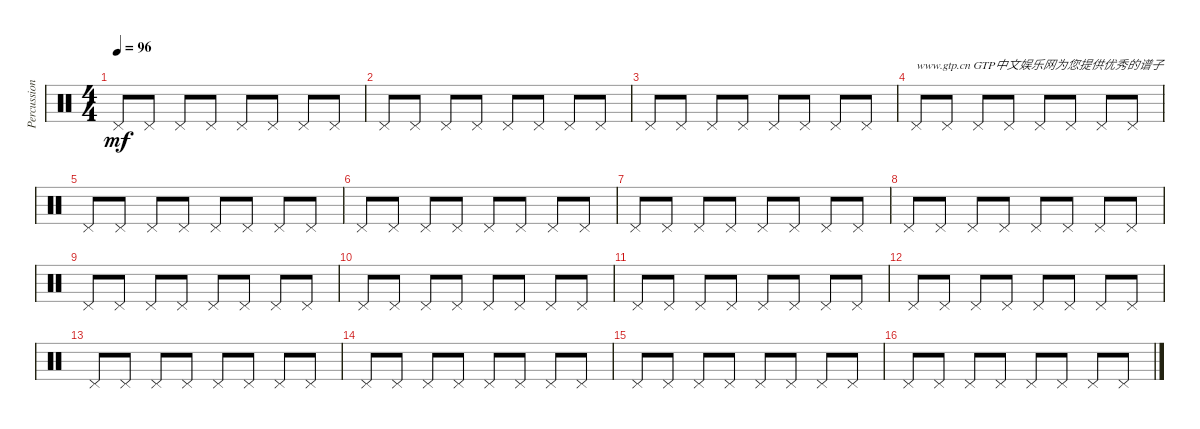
\track ("Percussion" "Percussion") {instrument percussion}
\staff {score}
\articulation defaults
\ts (4 4)
\tempo 96
\clef neutral
\ks c "Pedal Hi-Hat (hit)".8{dy mf} "Pedal Hi-Hat (hit)".8 "Pedal Hi-Hat (hit)".8 "Pedal Hi-Hat (hit)".8 "Pedal Hi-Hat (hit)".8 "Pedal Hi-Hat (hit)".8 "Pedal Hi-Hat (hit)".8 "Pedal Hi-Hat (hit)".8
|
"Pedal Hi-Hat (hit)".8 "Pedal Hi-Hat (hit)".8 "Pedal Hi-Hat (hit)".8 "Pedal Hi-Hat (hit)".8 "Pedal Hi-Hat (hit)".8 "Pedal Hi-Hat (hit)".8 "Pedal Hi-Hat (hit)".8 "Pedal Hi-Hat (hit)".8 |
"Pedal Hi-Hat (hit)".8 "Pedal Hi-Hat (hit)".8 "Pedal Hi-Hat (hit)".8 "Pedal Hi-Hat (hit)".8 "Pedal Hi-Hat (hit)".8 "Pedal Hi-Hat (hit)".8 "Pedal Hi-Hat (hit)".8 "Pedal Hi-Hat (hit)".8 |
"Pedal Hi-Hat (hit)".8{txt "www.gtp.cn GTP中文娱乐网为您提供优秀的谱子"} "Pedal Hi-Hat (hit)".8 "Pedal Hi-Hat (hit)".8 "Pedal Hi-Hat (hit)".8 "Pedal Hi-Hat (hit)".8 "Pedal Hi-Hat (hit)".8 "Pedal Hi-Hat (hit)".8 "Pedal Hi-Hat (hit)".8 |
"Pedal Hi-Hat (hit)".8 "Pedal Hi-Hat (hit)".8 "Pedal Hi-Hat (hit)".8 "Pedal Hi-Hat (hit)".8 "Pedal Hi-Hat (hit)".8 "Pedal Hi-Hat (hit)".8 "Pedal Hi-Hat (hit)".8 "Pedal Hi-Hat (hit)".8 |
"Pedal Hi-Hat (hit)".8 "Pedal Hi-Hat (hit)".8 "Pedal Hi-Hat (hit)".8 "Pedal Hi-Hat (hit)".8 "Pedal Hi-Hat (hit)".8 "Pedal Hi-Hat (hit)".8 "Pedal Hi-Hat (hit)".8 "Pedal Hi-Hat (hit)".8 |
"Pedal Hi-Hat (hit)".8 "Pedal Hi-Hat (hit)".8 "Pedal Hi-Hat (hit)".8 "Pedal Hi-Hat (hit)".8 "Pedal Hi-Hat (hit)".8 "Pedal Hi-Hat (hit)".8 "Pedal Hi-Hat (hit)".8 "Pedal Hi-Hat (hit)".8 |
"Pedal Hi-Hat (hit)".8 "Pedal Hi-Hat (hit)".8 "Pedal Hi-Hat (hit)".8 "Pedal Hi-Hat (hit)".8 "Pedal Hi-Hat (hit)".8 "Pedal Hi-Hat (hit)".8 "Pedal Hi-Hat (hit)".8 "Pedal Hi-Hat (hit)".8 |
"Pedal Hi-Hat (hit)".8 "Pedal Hi-Hat (hit)".8 "Pedal Hi-Hat (hit)".8 "Pedal Hi-Hat (hit)".8 "Pedal Hi-Hat (hit)".8 "Pedal Hi-Hat (hit)".8 "Pedal Hi-Hat (hit)".8 "Pedal Hi-Hat (hit)".8 |
"Pedal Hi-Hat (hit)".8 "Pedal Hi-Hat (hit)".8 "Pedal Hi-Hat (hit)".8 "Pedal Hi-Hat (hit)".8 "Pedal Hi-Hat (hit)".8 "Pedal Hi-Hat (hit)".8 "Pedal Hi-Hat (hit)".8 "Pedal Hi-Hat (hit)".8 |
"Pedal Hi-Hat (hit)".8 "Pedal Hi-Hat (hit)".8 "Pedal Hi-Hat (hit)".8 "Pedal Hi-Hat (hit)".8 "Pedal Hi-Hat (hit)".8 "Pedal Hi-Hat (hit)".8 "Pedal Hi-Hat (hit)".8 "Pedal Hi-Hat (hit)".8 |
"Pedal Hi-Hat (hit)".8 "Pedal Hi-Hat (hit)".8 "Pedal Hi-Hat (hit)".8 "Pedal Hi-Hat (hit)".8 "Pedal Hi-Hat (hit)".8 "Pedal Hi-Hat (hit)".8 "Pedal Hi-Hat (hit)".8 "Pedal Hi-Hat (hit)".8 |
"Pedal Hi-Hat (hit)".8 "Pedal Hi-Hat (hit)".8 "Pedal Hi-Hat (hit)".8 "Pedal Hi-Hat (hit)".8 "Pedal Hi-Hat (hit)".8 "Pedal Hi-Hat (hit)".8 "Pedal Hi-Hat (hit)".8 "Pedal Hi-Hat (hit)".8 |
"Pedal Hi-Hat (hit)".8 "Pedal Hi-Hat (hit)".8 "Pedal Hi-Hat (hit)".8 "Pedal Hi-Hat (hit)".8 "Pedal Hi-Hat (hit)".8 "Pedal Hi-Hat (hit)".8 "Pedal Hi-Hat (hit)".8 "Pedal Hi-Hat (hit)".8 |
"Pedal Hi-Hat (hit)".8 "Pedal Hi-Hat (hit)".8 "Pedal Hi-Hat (hit)".8 "Pedal Hi-Hat (hit)".8 "Pedal Hi-Hat (hit)".8 "Pedal Hi-Hat (hit)".8 "Pedal Hi-Hat (hit)".8 "Pedal Hi-Hat (hit)".8 |
"Pedal Hi-Hat (hit)".8 "Pedal Hi-Hat (hit)".8 "Pedal Hi-Hat (hit)".8 "Pedal Hi-Hat (hit)".8 "Pedal Hi-Hat (hit)".8 "Pedal Hi-Hat (hit)".8 "Pedal Hi-Hat (hit)".8 "Pedal Hi-Hat (hit)".8
